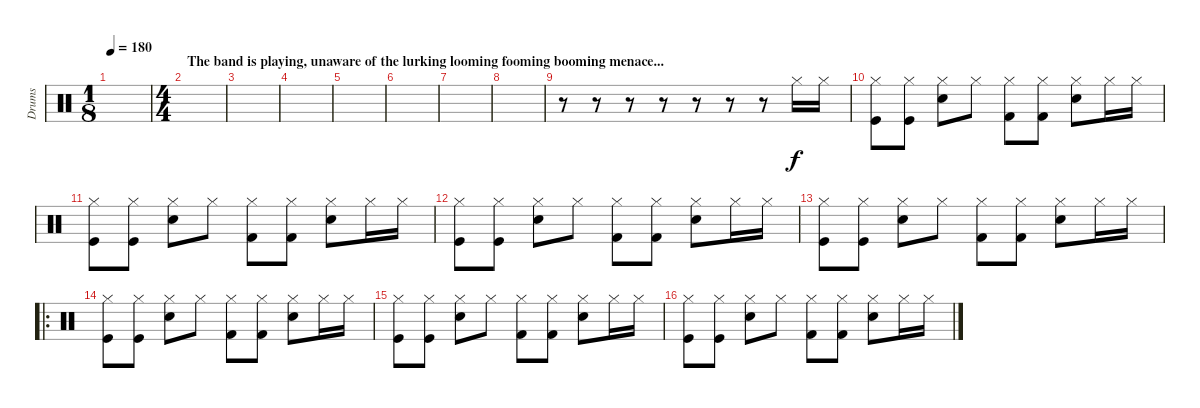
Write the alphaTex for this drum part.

\track ("Drums" "Drums") {instrument percussion}
\staff {score}
\articulation defaults
\ts (1 8)
\tempo 180
\tempo 142
\tempo 180
\clef neutral
\ks c
|
\ts (4 4)
\section ("" "The band is playing, unaware of the lurking looming fooming booming menace...")
|
|
|
|
|
|
|
r.8 r.8 r.8 r.8 r.8 r.8 r.8 "Hi-Hat (closed)".16 "Hi-Hat (closed)".16 |
("Hi-Hat (closed)" "Kick (hit)").8 ("Hi-Hat (closed)" "Kick (hit)").8 ("Hi-Hat (closed)" "Electric Snare (hit)").8 "Hi-Hat (closed)".8 ("Hi-Hat (closed)" "Kick (hit) 2").8 ("Hi-Hat (closed)" "Kick (hit) 2").8 ("Hi-Hat (closed)" "Electric Snare (hit)").8 "Hi-Hat (closed)".16 "Hi-Hat (closed)".16 |
("Hi-Hat (closed)" "Kick (hit)").8 ("Hi-Hat (closed)" "Kick (hit)").8 ("Hi-Hat (closed)" "Electric Snare (hit)").8 "Hi-Hat (closed)".8 ("Hi-Hat (closed)" "Kick (hit) 2").8 ("Hi-Hat (closed)" "Kick (hit) 2").8 ("Hi-Hat (closed)" "Electric Snare (hit)").8 "Hi-Hat (closed)".16 "Hi-Hat (closed)".16 |
("Hi-Hat (closed)" "Kick (hit)").8 ("Hi-Hat (closed)" "Kick (hit)").8 ("Hi-Hat (closed)" "Electric Snare (hit)").8 "Hi-Hat (closed)".8 ("Hi-Hat (closed)" "Kick (hit) 2").8 ("Hi-Hat (closed)" "Kick (hit) 2").8 ("Hi-Hat (closed)" "Electric Snare (hit)").8 "Hi-Hat (closed)".16 "Hi-Hat (closed)".16 |
("Hi-Hat (closed)" "Kick (hit)").8 ("Hi-Hat (closed)" "Kick (hit)").8 ("Hi-Hat (closed)" "Electric Snare (hit)").8 "Hi-Hat (closed)".8 ("Hi-Hat (closed)" "Kick (hit) 2").8 ("Hi-Hat (closed)" "Kick (hit) 2").8 ("Hi-Hat (closed)" "Electric Snare (hit)").8 "Hi-Hat (closed)".16 "Hi-Hat (closed)".16 |
\ro
("Hi-Hat (closed)" "Kick (hit)").8 ("Hi-Hat (closed)" "Kick (hit)").8 ("Hi-Hat (closed)" "Electric Snare (hit)").8 "Hi-Hat (closed)".8 ("Hi-Hat (closed)" "Kick (hit) 2").8 ("Hi-Hat (closed)" "Kick (hit) 2").8 ("Hi-Hat (closed)" "Electric Snare (hit)").8 "Hi-Hat (closed)".16 "Hi-Hat (closed)".16 |
("Hi-Hat (closed)" "Kick (hit)").8 ("Hi-Hat (closed)" "Kick (hit)").8 ("Hi-Hat (closed)" "Electric Snare (hit)").8 "Hi-Hat (closed)".8 ("Hi-Hat (closed)" "Kick (hit) 2").8 ("Hi-Hat (closed)" "Kick (hit) 2").8 ("Hi-Hat (closed)" "Electric Snare (hit)").8 "Hi-Hat (closed)".16 "Hi-Hat (closed)".16 |
("Hi-Hat (closed)" "Kick (hit)").8 ("Hi-Hat (closed)" "Kick (hit)").8 ("Hi-Hat (closed)" "Electric Snare (hit)").8 "Hi-Hat (closed)".8 ("Hi-Hat (closed)" "Kick (hit) 2").8 ("Hi-Hat (closed)" "Kick (hit) 2").8 ("Hi-Hat (closed)" "Electric Snare (hit)").8 "Hi-Hat (closed)".16 "Hi-Hat (closed)".16
